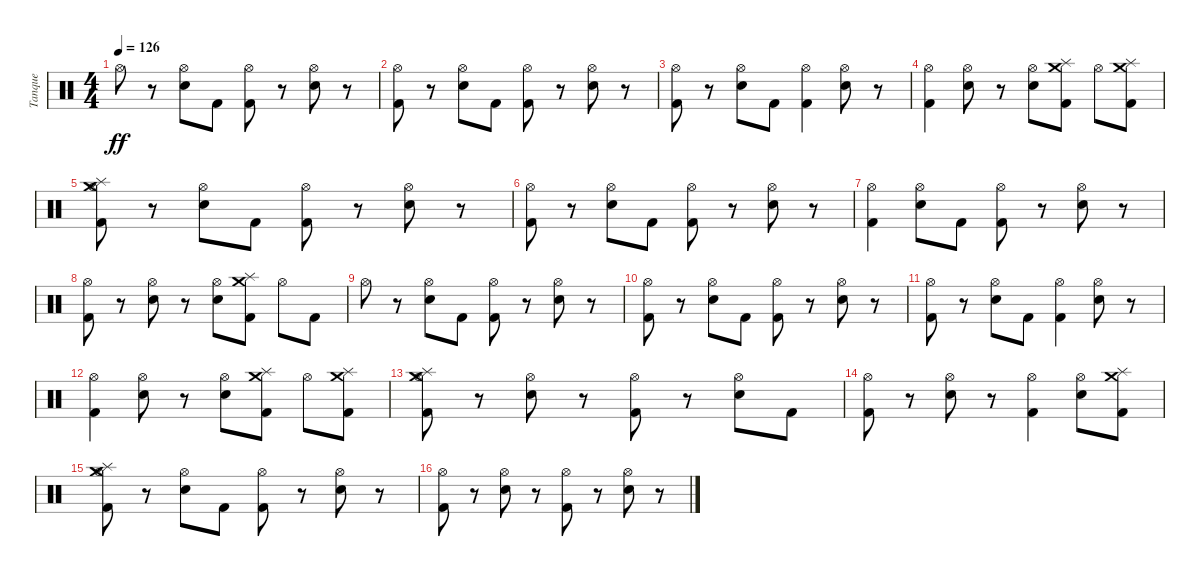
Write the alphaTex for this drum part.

\track ("Tanque" "Tanque") {instrument percussion}
\staff {score}
\articulation defaults
\ts (4 4)
\tempo 126
\clef neutral
\ks c "Hi-Hat (open)".8{dy ff}
r.8 ("Hi-Hat (open)" "Snare (hit) 2").8 "Kick (hit) 2".8 ("Hi-Hat (open)" "Kick (hit) 2").8 r.8 ("Hi-Hat (open)" "Snare (hit) 2").8 r.8 |
("Hi-Hat (open)" "Kick (hit) 2").8 r.8 ("Hi-Hat (open)" "Snare (hit) 2").8 "Kick (hit) 2".8 ("Hi-Hat (open)" "Kick (hit) 2").8 r.8 ("Hi-Hat (open)" "Snare (hit) 2").8 r.8 |
("Hi-Hat (open)" "Kick (hit) 2").8 r.8 ("Hi-Hat (open)" "Snare (hit) 2").8 "Kick (hit) 2".8 ("Hi-Hat (open)" "Kick (hit) 2").4 ("Hi-Hat (open)" "Snare (hit) 2").8 r.8 |
("Hi-Hat (open)" "Kick (hit) 2").4 ("Hi-Hat (open)" "Snare (hit) 2").8 r.8 ("Hi-Hat (open)" "Snare (hit) 2").8 ("Splash (hit)" "Crash medium (hit)" "Kick (hit) 2").8 "Hi-Hat (open)".8 ("Kick (hit) 2" "Splash (hit)" "Crash medium (hit)").8 |
("Kick (hit) 2" "Hi-Hat (open)" "Crash medium (hit)" "Splash (hit)").8 r.8 ("Snare (hit) 2" "Hi-Hat (open)").8 "Kick (hit) 2".8 ("Kick (hit) 2" "Hi-Hat (open)").8 r.8 ("Snare (hit) 2" "Hi-Hat (open)").8 r.8 |
("Kick (hit) 2" "Hi-Hat (open)").8 r.8 ("Snare (hit) 2" "Hi-Hat (open)").8 "Kick (hit) 2".8 ("Kick (hit) 2" "Hi-Hat (open)").8 r.8 ("Hi-Hat (open)" "Snare (hit) 2").8 r.8 |
("Hi-Hat (open)" "Kick (hit) 2").4 ("Hi-Hat (open)" "Snare (hit) 2").8 "Kick (hit) 2".8 ("Hi-Hat (open)" "Kick (hit) 2").8 r.8 ("Hi-Hat (open)" "Snare (hit) 2").8 r.8 |
("Hi-Hat (open)" "Kick (hit) 2").8 r.8 ("Hi-Hat (open)" "Snare (hit) 2").8 r.8 ("Hi-Hat (open)" "Snare (hit) 2").8 ("Kick (hit) 2" "Crash medium (hit)" "Splash (hit)").8 "Hi-Hat (open)".8 "Kick (hit) 2".8 |
"Hi-Hat (open)".8 r.8 ("Hi-Hat (open)" "Snare (hit) 2").8 "Kick (hit) 2".8 ("Hi-Hat (open)" "Kick (hit) 2").8 r.8 ("Hi-Hat (open)" "Snare (hit) 2").8 r.8 |
("Hi-Hat (open)" "Kick (hit) 2").8 r.8 ("Hi-Hat (open)" "Snare (hit) 2").8 "Kick (hit) 2".8 ("Hi-Hat (open)" "Kick (hit) 2").8 r.8 ("Hi-Hat (open)" "Snare (hit) 2").8 r.8 |
("Hi-Hat (open)" "Kick (hit) 2").8 r.8 ("Hi-Hat (open)" "Snare (hit) 2").8 "Kick (hit) 2".8 ("Hi-Hat (open)" "Kick (hit) 2").4 ("Hi-Hat (open)" "Snare (hit) 2").8 r.8 |
("Hi-Hat (open)" "Kick (hit) 2").4 ("Hi-Hat (open)" "Snare (hit) 2").8 r.8 ("Hi-Hat (open)" "Snare (hit) 2").8 ("Splash (hit)" "Crash medium (hit)" "Kick (hit) 2").8 "Hi-Hat (open)".8 ("Kick (hit) 2" "Splash (hit)" "Crash medium (hit)").8 |
("Splash (hit)" "Crash medium (hit)" "Kick (hit) 2" "Hi-Hat (open)").8 r.8 ("Snare (hit) 2" "Hi-Hat (open)").8 r.8 ("Kick (hit) 2" "Hi-Hat (open)").8 r.8 ("Snare (hit) 2" "Hi-Hat (open)").8 "Kick (hit) 2".8 |
("Kick (hit) 2" "Hi-Hat (open)").8 r.8 ("Snare (hit) 2" "Hi-Hat (open)").8 r.8 ("Kick (hit) 2" "Hi-Hat (open)").4 ("Snare (hit) 2" "Hi-Hat (open)").8 ("Splash (hit)" "Crash medium (hit)" "Kick (hit) 2").8 |
("Splash (hit)" "Crash medium (hit)" "Kick (hit) 2" "Hi-Hat (open)").8 r.8 ("Snare (hit) 2" "Hi-Hat (open)").8 "Kick (hit) 2".8 ("Kick (hit) 2" "Hi-Hat (open)").8 r.8 ("Snare (hit) 2" "Hi-Hat (open)").8 r.8 |
("Kick (hit) 2" "Hi-Hat (open)").8 r.8 ("Snare (hit) 2" "Hi-Hat (open)").8 r.8 ("Kick (hit) 2" "Hi-Hat (open)").8 r.8 ("Snare (hit) 2" "Hi-Hat (open)").8 r.8
